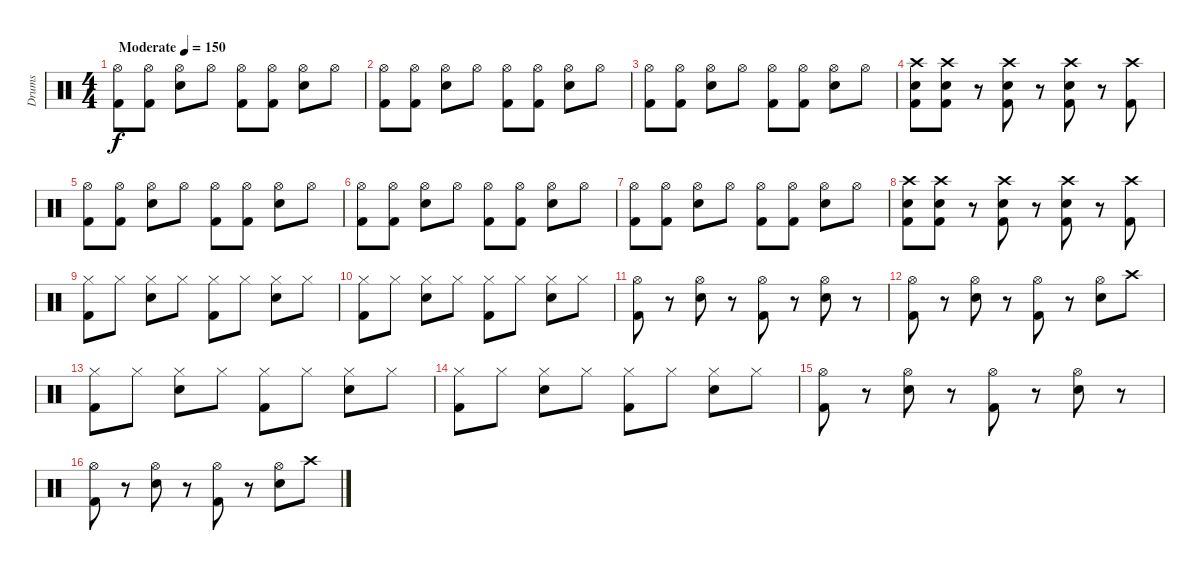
\track ("Drums" "Drums") {instrument percussion}
\staff {score}
\articulation defaults
\ts (4 4)
\tempo (150 "Moderate")
\clef neutral
\ks c
("Hi-Hat (open)" "Kick (hit) 2").8{dy f} ("Hi-Hat (open)" "Kick (hit) 2").8 ("Hi-Hat (open)" "Electric Snare (hit)").8 "Hi-Hat (open)".8 ("Hi-Hat (open)" "Kick (hit) 2").8 ("Hi-Hat (open)" "Kick (hit) 2").8 ("Hi-Hat (open)" "Electric Snare (hit)").8 "Hi-Hat (open)".8 |
("Hi-Hat (open)" "Kick (hit) 2").8 ("Hi-Hat (open)" "Kick (hit) 2").8 ("Hi-Hat (open)" "Electric Snare (hit)").8 "Hi-Hat (open)".8 ("Hi-Hat (open)" "Kick (hit) 2").8 ("Hi-Hat (open)" "Kick (hit) 2").8 ("Hi-Hat (open)" "Electric Snare (hit)").8 "Hi-Hat (open)".8 |
("Hi-Hat (open)" "Kick (hit) 2").8 ("Hi-Hat (open)" "Kick (hit) 2").8 ("Hi-Hat (open)" "Electric Snare (hit)").8 "Hi-Hat (open)".8 ("Hi-Hat (open)" "Kick (hit) 2").8 ("Hi-Hat (open)" "Kick (hit) 2").8 ("Hi-Hat (open)" "Electric Snare (hit)").8 "Hi-Hat (open)".8 |
("Crash high (hit)" "Electric Snare (hit)" "Kick (hit) 2").8 ("Crash high (hit)" "Electric Snare (hit)" "Kick (hit) 2").8 r.8 ("Crash high (hit)" "Electric Snare (hit)" "Kick (hit) 2").8 r.8 ("Crash high (hit)" "Electric Snare (hit)" "Kick (hit) 2").8 r.8 ("Crash high (hit)" "Kick (hit) 2").8 |
("Hi-Hat (open)" "Kick (hit) 2").8 ("Hi-Hat (open)" "Kick (hit) 2").8 ("Hi-Hat (open)" "Electric Snare (hit)").8 "Hi-Hat (open)".8 ("Hi-Hat (open)" "Kick (hit) 2").8 ("Hi-Hat (open)" "Kick (hit) 2").8 ("Hi-Hat (open)" "Electric Snare (hit)").8 "Hi-Hat (open)".8 |
("Hi-Hat (open)" "Kick (hit) 2").8 ("Hi-Hat (open)" "Kick (hit) 2").8 ("Hi-Hat (open)" "Electric Snare (hit)").8 "Hi-Hat (open)".8 ("Hi-Hat (open)" "Kick (hit) 2").8 ("Hi-Hat (open)" "Kick (hit) 2").8 ("Hi-Hat (open)" "Electric Snare (hit)").8 "Hi-Hat (open)".8 |
("Hi-Hat (open)" "Kick (hit) 2").8 ("Hi-Hat (open)" "Kick (hit) 2").8 ("Hi-Hat (open)" "Electric Snare (hit)").8 "Hi-Hat (open)".8 ("Hi-Hat (open)" "Kick (hit) 2").8 ("Hi-Hat (open)" "Kick (hit) 2").8 ("Hi-Hat (open)" "Electric Snare (hit)").8 "Hi-Hat (open)".8 |
("Crash high (hit)" "Electric Snare (hit)" "Kick (hit) 2").8 ("Crash high (hit)" "Electric Snare (hit)" "Kick (hit) 2").8 r.8 ("Crash high (hit)" "Electric Snare (hit)" "Kick (hit) 2").8 r.8 ("Crash high (hit)" "Electric Snare (hit)" "Kick (hit) 2").8 r.8 ("Crash high (hit)" "Kick (hit) 2").8 |
("Hi-Hat (closed)" "Kick (hit) 2").8 "Hi-Hat (closed)".8 ("Hi-Hat (closed)" "Electric Snare (hit)").8 "Hi-Hat (closed)".8 ("Hi-Hat (closed)" "Kick (hit) 2").8 "Hi-Hat (closed)".8 ("Hi-Hat (closed)" "Electric Snare (hit)").8 "Hi-Hat (closed)".8 |
("Hi-Hat (closed)" "Kick (hit) 2").8 "Hi-Hat (closed)".8 ("Hi-Hat (closed)" "Electric Snare (hit)").8 "Hi-Hat (closed)".8 ("Hi-Hat (closed)" "Kick (hit) 2").8 "Hi-Hat (closed)".8 ("Hi-Hat (closed)" "Electric Snare (hit)").8 "Hi-Hat (closed)".8 |
("Hi-Hat (open)" "Kick (hit) 2").8 r.8 ("Hi-Hat (open)" "Electric Snare (hit)").8 r.8 ("Hi-Hat (open)" "Kick (hit) 2").8 r.8 ("Hi-Hat (open)" "Electric Snare (hit)").8 r.8 |
("Hi-Hat (open)" "Kick (hit) 2").8 r.8 ("Hi-Hat (open)" "Electric Snare (hit)").8 r.8 ("Hi-Hat (open)" "Kick (hit) 2").8 r.8 ("Hi-Hat (open)" "Electric Snare (hit)").8 "Crash high (hit)".8 |
("Hi-Hat (closed)" "Kick (hit) 2").8 "Hi-Hat (closed)".8 ("Hi-Hat (closed)" "Electric Snare (hit)").8 "Hi-Hat (closed)".8 ("Hi-Hat (closed)" "Kick (hit) 2").8 "Hi-Hat (closed)".8 ("Hi-Hat (closed)" "Electric Snare (hit)").8 "Hi-Hat (closed)".8 |
("Hi-Hat (closed)" "Kick (hit) 2").8 "Hi-Hat (closed)".8 ("Hi-Hat (closed)" "Electric Snare (hit)").8 "Hi-Hat (closed)".8 ("Hi-Hat (closed)" "Kick (hit) 2").8 "Hi-Hat (closed)".8 ("Hi-Hat (closed)" "Electric Snare (hit)").8 "Hi-Hat (closed)".8 |
("Hi-Hat (open)" "Kick (hit) 2").8 r.8 ("Hi-Hat (open)" "Electric Snare (hit)").8 r.8 ("Hi-Hat (open)" "Kick (hit) 2").8 r.8 ("Hi-Hat (open)" "Electric Snare (hit)").8 r.8 |
("Hi-Hat (open)" "Kick (hit) 2").8 r.8 ("Hi-Hat (open)" "Electric Snare (hit)").8 r.8 ("Hi-Hat (open)" "Kick (hit) 2").8 r.8 ("Hi-Hat (open)" "Electric Snare (hit)").8 "Crash high (hit)".8
